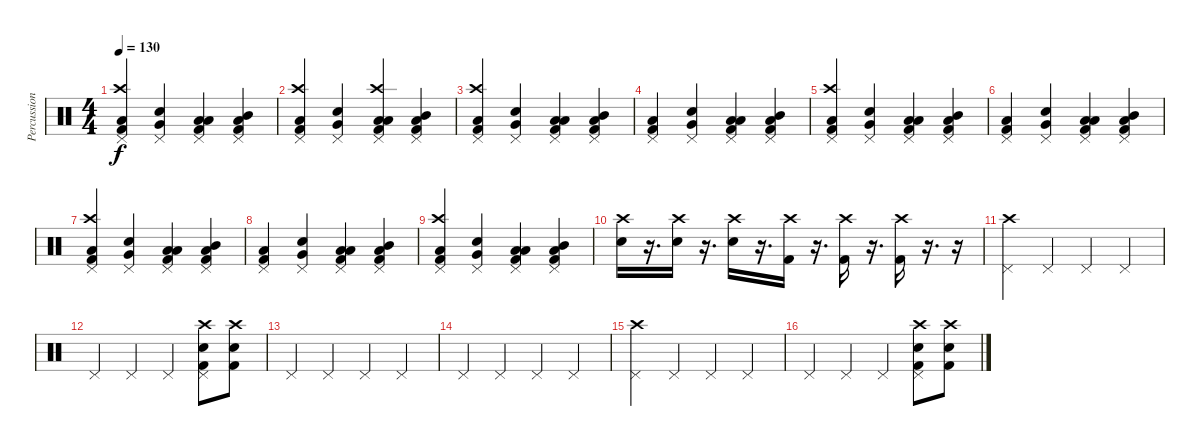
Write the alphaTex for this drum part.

\track ("Percussion" "Percussion") {instrument percussion}
\staff {score}
\articulation defaults
\ts (4 4)
\tempo 130
\clef neutral
\ks c
("Pedal Hi-Hat (hit)" "Crash high (hit)" "Kick (hit) 2" "Low Floor Tom (hit)").4{dy f} ("Pedal Hi-Hat (hit)" "Very Low Tom (hit)" "Snare (hit) 2").4 ("Pedal Hi-Hat (hit)" "Low Floor Tom (hit)" "Kick (hit) 2" "Low Tom (hit)").4 ("Pedal Hi-Hat (hit)" "Low Tom (hit)" "Kick (hit) 2" "Mid Tom (hit)").4 |
("Pedal Hi-Hat (hit)" "Crash high (hit)" "Kick (hit) 2" "Low Floor Tom (hit)").4 ("Pedal Hi-Hat (hit)" "Very Low Tom (hit)" "Snare (hit) 2").4 ("Pedal Hi-Hat (hit)" "Crash high (hit)" "Low Floor Tom (hit)" "Kick (hit) 2" "Low Tom (hit)").4 ("Pedal Hi-Hat (hit)" "Low Tom (hit)" "Kick (hit) 2" "Mid Tom (hit)").4 |
("Pedal Hi-Hat (hit)" "Crash high (hit)" "Kick (hit) 2" "Low Floor Tom (hit)").4 ("Pedal Hi-Hat (hit)" "Very Low Tom (hit)" "Snare (hit) 2").4 ("Pedal Hi-Hat (hit)" "Low Floor Tom (hit)" "Kick (hit) 2" "Low Tom (hit)").4 ("Pedal Hi-Hat (hit)" "Low Tom (hit)" "Kick (hit) 2" "Mid Tom (hit)").4 |
("Pedal Hi-Hat (hit)" "Kick (hit) 2" "Low Floor Tom (hit)").4 ("Pedal Hi-Hat (hit)" "Very Low Tom (hit)" "Snare (hit) 2").4 ("Pedal Hi-Hat (hit)" "Low Floor Tom (hit)" "Kick (hit) 2" "Low Tom (hit)").4 ("Pedal Hi-Hat (hit)" "Low Tom (hit)" "Kick (hit) 2" "Mid Tom (hit)").4 |
("Pedal Hi-Hat (hit)" "Crash high (hit)" "Kick (hit) 2" "Low Floor Tom (hit)").4 ("Pedal Hi-Hat (hit)" "Very Low Tom (hit)" "Snare (hit) 2").4 ("Pedal Hi-Hat (hit)" "Low Floor Tom (hit)" "Kick (hit) 2" "Low Tom (hit)").4 ("Pedal Hi-Hat (hit)" "Low Tom (hit)" "Kick (hit) 2" "Mid Tom (hit)").4 |
("Pedal Hi-Hat (hit)" "Kick (hit) 2" "Low Floor Tom (hit)").4 ("Pedal Hi-Hat (hit)" "Very Low Tom (hit)" "Snare (hit) 2").4 ("Pedal Hi-Hat (hit)" "Low Floor Tom (hit)" "Kick (hit) 2" "Low Tom (hit)").4 ("Pedal Hi-Hat (hit)" "Low Tom (hit)" "Kick (hit) 2" "Mid Tom (hit)").4 |
("Pedal Hi-Hat (hit)" "Crash high (hit)" "Kick (hit) 2" "Low Floor Tom (hit)").4 ("Pedal Hi-Hat (hit)" "Very Low Tom (hit)" "Snare (hit) 2").4 ("Pedal Hi-Hat (hit)" "Low Floor Tom (hit)" "Kick (hit) 2" "Low Tom (hit)").4 ("Pedal Hi-Hat (hit)" "Low Tom (hit)" "Kick (hit) 2" "Mid Tom (hit)").4 |
("Pedal Hi-Hat (hit)" "Kick (hit) 2" "Low Floor Tom (hit)").4 ("Pedal Hi-Hat (hit)" "Very Low Tom (hit)" "Snare (hit) 2").4 ("Pedal Hi-Hat (hit)" "Low Floor Tom (hit)" "Kick (hit) 2" "Low Tom (hit)").4 ("Pedal Hi-Hat (hit)" "Low Tom (hit)" "Kick (hit) 2" "Mid Tom (hit)").4 |
("Pedal Hi-Hat (hit)" "Crash high (hit)" "Kick (hit) 2" "Low Floor Tom (hit)").4 ("Pedal Hi-Hat (hit)" "Very Low Tom (hit)" "Snare (hit) 2").4 ("Pedal Hi-Hat (hit)" "Low Floor Tom (hit)" "Kick (hit) 2" "Low Tom (hit)").4 ("Pedal Hi-Hat (hit)" "Low Tom (hit)" "Kick (hit) 2" "Mid Tom (hit)").4 |
("Snare (hit) 2" "Crash high (hit)").16{bd 480} r.16{d} ("Snare (hit) 2" "Crash high (hit)").16{bd 480} r.16{d} ("Snare (hit) 2" "Crash high (hit)").16{bd 480} r.16{d} ("Kick (hit) 2" "Crash high (hit)").16{bd 480} r.16{d} ("Kick (hit) 2" "Crash high (hit)").16 r.16{d} ("Kick (hit) 2" "Crash high (hit)").16 r.16{d} r.16 |
("Pedal Hi-Hat (hit)" "Crash high (hit)").4 "Pedal Hi-Hat (hit)".4 "Pedal Hi-Hat (hit)".4 "Pedal Hi-Hat (hit)".4 |
"Pedal Hi-Hat (hit)".4 "Pedal Hi-Hat (hit)".4 "Pedal Hi-Hat (hit)".4 ("Pedal Hi-Hat (hit)" "Crash high (hit)" "Kick (hit) 2" "Electric Snare (hit)").8 ("Crash high (hit)" "Kick (hit) 2" "Electric Snare (hit)").8 |
"Pedal Hi-Hat (hit)".4 "Pedal Hi-Hat (hit)".4 "Pedal Hi-Hat (hit)".4 "Pedal Hi-Hat (hit)".4 |
"Pedal Hi-Hat (hit)".4 "Pedal Hi-Hat (hit)".4 "Pedal Hi-Hat (hit)".4 "Pedal Hi-Hat (hit)".4 |
("Pedal Hi-Hat (hit)" "Crash high (hit)").4 "Pedal Hi-Hat (hit)".4 "Pedal Hi-Hat (hit)".4 "Pedal Hi-Hat (hit)".4 |
"Pedal Hi-Hat (hit)".4 "Pedal Hi-Hat (hit)".4 "Pedal Hi-Hat (hit)".4 ("Pedal Hi-Hat (hit)" "Crash high (hit)" "Kick (hit) 2" "Electric Snare (hit)").8 ("Crash high (hit)" "Kick (hit) 2" "Electric Snare (hit)").8
